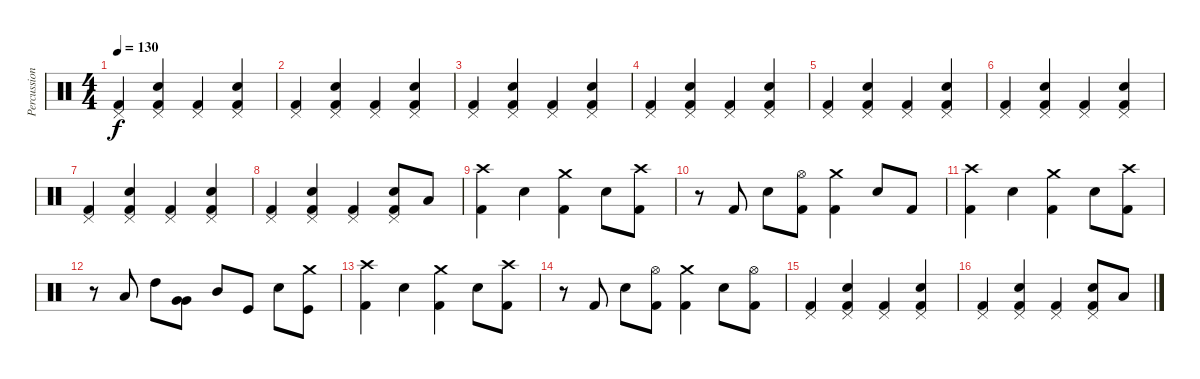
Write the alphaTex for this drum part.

\track ("Percussions" "Percussion") {instrument percussion}
\staff {score}
\articulation defaults
\ts (4 4)
\tempo 130
\clef neutral
\ks c
("Pedal Hi-Hat (hit)" "Kick (hit) 2").4{dy f} ("Pedal Hi-Hat (hit)" "Snare (hit) 2" "Kick (hit) 2").4 ("Pedal Hi-Hat (hit)" "Kick (hit) 2").4 ("Pedal Hi-Hat (hit)" "Snare (hit) 2" "Kick (hit) 2").4 |
("Pedal Hi-Hat (hit)" "Kick (hit) 2").4 ("Pedal Hi-Hat (hit)" "Snare (hit) 2" "Kick (hit) 2").4 ("Pedal Hi-Hat (hit)" "Kick (hit) 2").4 ("Pedal Hi-Hat (hit)" "Snare (hit) 2" "Kick (hit) 2").4 |
("Pedal Hi-Hat (hit)" "Kick (hit) 2").4 ("Pedal Hi-Hat (hit)" "Snare (hit) 2" "Kick (hit) 2").4 ("Pedal Hi-Hat (hit)" "Kick (hit) 2").4 ("Pedal Hi-Hat (hit)" "Snare (hit) 2" "Kick (hit) 2").4 |
("Pedal Hi-Hat (hit)" "Kick (hit) 2").4 ("Pedal Hi-Hat (hit)" "Snare (hit) 2" "Kick (hit) 2").4 ("Pedal Hi-Hat (hit)" "Kick (hit) 2").4 ("Pedal Hi-Hat (hit)" "Snare (hit) 2" "Kick (hit) 2").4 |
("Pedal Hi-Hat (hit)" "Kick (hit) 2").4 ("Pedal Hi-Hat (hit)" "Snare (hit) 2" "Kick (hit) 2").4 ("Pedal Hi-Hat (hit)" "Kick (hit) 2").4 ("Pedal Hi-Hat (hit)" "Snare (hit) 2" "Kick (hit) 2").4 |
("Pedal Hi-Hat (hit)" "Kick (hit) 2").4 ("Pedal Hi-Hat (hit)" "Snare (hit) 2" "Kick (hit) 2").4 ("Pedal Hi-Hat (hit)" "Kick (hit) 2").4 ("Pedal Hi-Hat (hit)" "Snare (hit) 2" "Kick (hit) 2").4 |
("Pedal Hi-Hat (hit)" "Kick (hit) 2").4 ("Pedal Hi-Hat (hit)" "Snare (hit) 2" "Kick (hit) 2").4 ("Pedal Hi-Hat (hit)" "Kick (hit) 2").4 ("Pedal Hi-Hat (hit)" "Snare (hit) 2" "Kick (hit) 2").4 |
("Pedal Hi-Hat (hit)" "Kick (hit) 2").4 ("Pedal Hi-Hat (hit)" "Snare (hit) 2" "Kick (hit) 2").4 ("Pedal Hi-Hat (hit)" "Kick (hit) 2").4 ("Pedal Hi-Hat (hit)" "Snare (hit) 2" "Kick (hit) 2").8 "Low Tom (hit)".8 |
("Crash high (hit)" "Kick (hit) 2").4 "Snare (hit) 2".4 ("Crash medium (hit)" "Kick (hit) 2").4 "Snare (hit) 2".8 ("Crash high (hit)" "Kick (hit) 2").8 |
r.8 "Kick (hit) 2".8 "Snare (hit) 2".8 ("Hi-Hat (open)" "Kick (hit) 2").8 ("Crash medium (hit)" "Kick (hit) 2").4 "Snare (hit) 2".8 "Kick (hit) 2".8 |
("Crash high (hit)" "Kick (hit) 2").4 "Snare (hit) 2".4 ("Crash medium (hit)" "Kick (hit) 2").4 "Snare (hit) 2".8 ("Crash high (hit)" "Kick (hit) 2").8 |
r.8 "Low Tom (hit)".8 "High Tom (hit)".8 ("Very Low Tom (hit)" "Very Low Tom (hit)").8 "Mid Tom (hit)".8 "Kick (hit)".8 "Snare (hit) 2".8 ("Crash medium (hit)" "Kick (hit)").8 |
("Crash high (hit)" "Kick (hit) 2").4 "Snare (hit) 2".4 ("Crash medium (hit)" "Kick (hit) 2").4 "Snare (hit) 2".8 ("Crash high (hit)" "Kick (hit) 2").8 |
r.8 "Kick (hit) 2".8 "Snare (hit) 2".8 ("Hi-Hat (open)" "Kick (hit) 2").8 ("Crash medium (hit)" "Kick (hit) 2").4 "Snare (hit) 2".8 ("Hi-Hat (open)" "Kick (hit) 2").8 |
("Pedal Hi-Hat (hit)" "Kick (hit) 2").4 ("Pedal Hi-Hat (hit)" "Snare (hit) 2" "Kick (hit) 2").4 ("Pedal Hi-Hat (hit)" "Kick (hit) 2").4 ("Pedal Hi-Hat (hit)" "Snare (hit) 2" "Kick (hit) 2").4 |
("Pedal Hi-Hat (hit)" "Kick (hit) 2").4 ("Pedal Hi-Hat (hit)" "Snare (hit) 2" "Kick (hit) 2").4 ("Pedal Hi-Hat (hit)" "Kick (hit) 2").4 ("Pedal Hi-Hat (hit)" "Snare (hit) 2" "Kick (hit) 2").8 "Low Tom (hit)".8
